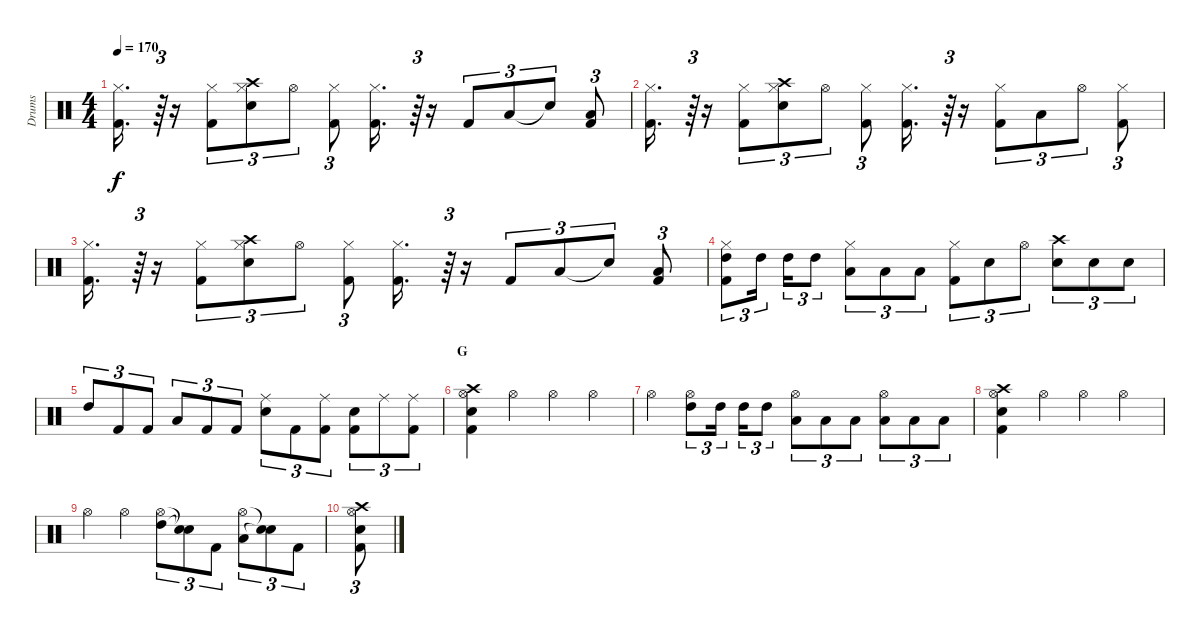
\track ("Drums" "Drums") {instrument percussion}
\staff {score}
\articulation defaults
\ts (4 4)
\tempo 170
\clef neutral
\ks c
("Hi-Hat (closed)" "Kick (hit) 2").16{d dy f} r.64{tu (3 2)} r.16 ("Hi-Hat (closed)" "Kick (hit) 2").8{tu (3 2)} ("Crash high (hit)" "Hi-Hat (closed)" "Snare (hit) 2").8{tu (3 2)} "Hi-Hat (open)".8{tu (3 2)} ("Hi-Hat (closed)" "Kick (hit) 2").8{tu (3 2)} ("Hi-Hat (closed)" "Kick (hit) 2").16{d} r.64{tu (3 2)} r.16 "Kick (hit) 2".8{tu (3 2)} "Low Tom (hit)".8{tu (3 2)} "Snare (hit)"{t}.8{tu (3 2)} ("Low Tom (hit)" "Kick (hit) 2").8{tu (3 2)} |
("Hi-Hat (closed)" "Kick (hit) 2").16{d} r.64{tu (3 2)} r.16 ("Hi-Hat (closed)" "Kick (hit) 2").8{tu (3 2)} ("Crash high (hit)" "Hi-Hat (closed)" "Snare (hit) 2").8{tu (3 2)} "Hi-Hat (open)".8{tu (3 2)} ("Hi-Hat (closed)" "Kick (hit) 2").8{tu (3 2)} ("Hi-Hat (closed)" "Kick (hit) 2").16{d} r.64{tu (3 2)} r.16 ("Hi-Hat (closed)" "Kick (hit) 2").8{tu (3 2)} "Low Tom (hit)".8{tu (3 2)} "Hi-Hat (open)".8{tu (3 2)} ("Hi-Hat (closed)" "Kick (hit) 2").8{tu (3 2)} |
("Hi-Hat (closed)" "Kick (hit) 2").16{d} r.64{tu (3 2)} r.16 ("Hi-Hat (closed)" "Kick (hit) 2").8{tu (3 2)} ("Crash high (hit)" "Hi-Hat (closed)" "Snare (hit) 2").8{tu (3 2)} "Hi-Hat (open)".8{tu (3 2)} ("Hi-Hat (closed)" "Kick (hit) 2").8{tu (3 2)} ("Hi-Hat (closed)" "Kick (hit) 2").16{d} r.64{tu (3 2)} r.16 "Kick (hit) 2".8{tu (3 2)} "Low Tom (hit)".8{tu (3 2)} "Snare (hit)"{t}.8{tu (3 2)} ("Low Tom (hit)" "Kick (hit) 2").8{tu (3 2)} |
("Hi-Hat (closed)" "High Tom (hit)" "Kick (hit) 2").8{tu (3 2)} "High Tom (hit)".16{tu (3 2)} "High Tom (hit)".16{tu (3 2)} "High Tom (hit)".8{tu (3 2)} ("Hi-Hat (closed)" "Low Tom (hit)").8{tu (3 2)} "Low Tom (hit)".8{tu (3 2)} "Low Tom (hit)".8{tu (3 2)} ("Hi-Hat (closed)" "Kick (hit) 2").8{tu (3 2)} "Snare (hit) 2".8{tu (3 2)} "Hi-Hat (open)".8{tu (3 2)} ("Crash high (hit)" "Snare (hit) 2").8{tu (3 2)} "Snare (hit) 2".8{tu (3 2)} "Snare (hit) 2".8{tu (3 2)} |
"High Tom (hit)".8{tu (3 2)} "Kick (hit) 2".8{tu (3 2)} "Kick (hit) 2".8{tu (3 2)} "Low Tom (hit)".8{tu (3 2)} "Kick (hit) 2".8{tu (3 2)} "Kick (hit) 2".8{tu (3 2)} ("Ride (middle)" "Snare (hit) 2").8{tu (3 2)} "Kick (hit) 2".8{tu (3 2)} ("Ride (middle)" "Kick (hit) 2").8{tu (3 2)} ("Snare (hit) 2" "Kick (hit) 2").8{tu (3 2)} "Ride (middle)".8{tu (3 2)} ("Ride (middle)" "Kick (hit) 2").8{tu (3 2)} |
\section ("" "G")
("Crash high (hit)" "Hi-Hat (open)" "Snare (hit) 2" "Kick (hit) 2").4 "Hi-Hat (open)".4 "Hi-Hat (open)".4 "Hi-Hat (open)".4 |
"Hi-Hat (open)".4 ("Hi-Hat (open)" "High Tom (hit)").8{tu (3 2)} "High Tom (hit)".16{tu (3 2)} "High Tom (hit)".16{tu (3 2)} "High Tom (hit)".8{tu (3 2)} ("Hi-Hat (open)" "Low Tom (hit)").8{tu (3 2)} "Low Tom (hit)".8{tu (3 2)} "Low Tom (hit)".8{tu (3 2)} ("Hi-Hat (open)" "Low Floor Tom (hit)").8{tu (3 2)} "Low Floor Tom (hit)".8{tu (3 2)} "Low Floor Tom (hit)".8{tu (3 2)} |
("Crash high (hit)" "Hi-Hat (open)" "Snare (hit) 2" "Kick (hit) 2").4 "Hi-Hat (open)".4 "Hi-Hat (open)".4 "Hi-Hat (open)".4 |
"Hi-Hat (open)".4 "Hi-Hat (open)".4 ("Hi-Hat (open)" "High Tom (hit)").8{tu (3 2)} ("Snare (hit)"{t} "Snare (hit)"{t}).8{tu (3 2)} "Kick (hit) 2".8{tu (3 2)} ("Hi-Hat (open)" "Low Tom (hit)").8{tu (3 2)} ("Snare (hit)"{t} "Snare (hit)"{t}).8{tu (3 2)} "Kick (hit) 2".8{tu (3 2)} |
("Crash high (hit)" "Hi-Hat (open)" "Snare (hit) 2" "Kick (hit) 2").8{tu (3 2)}
